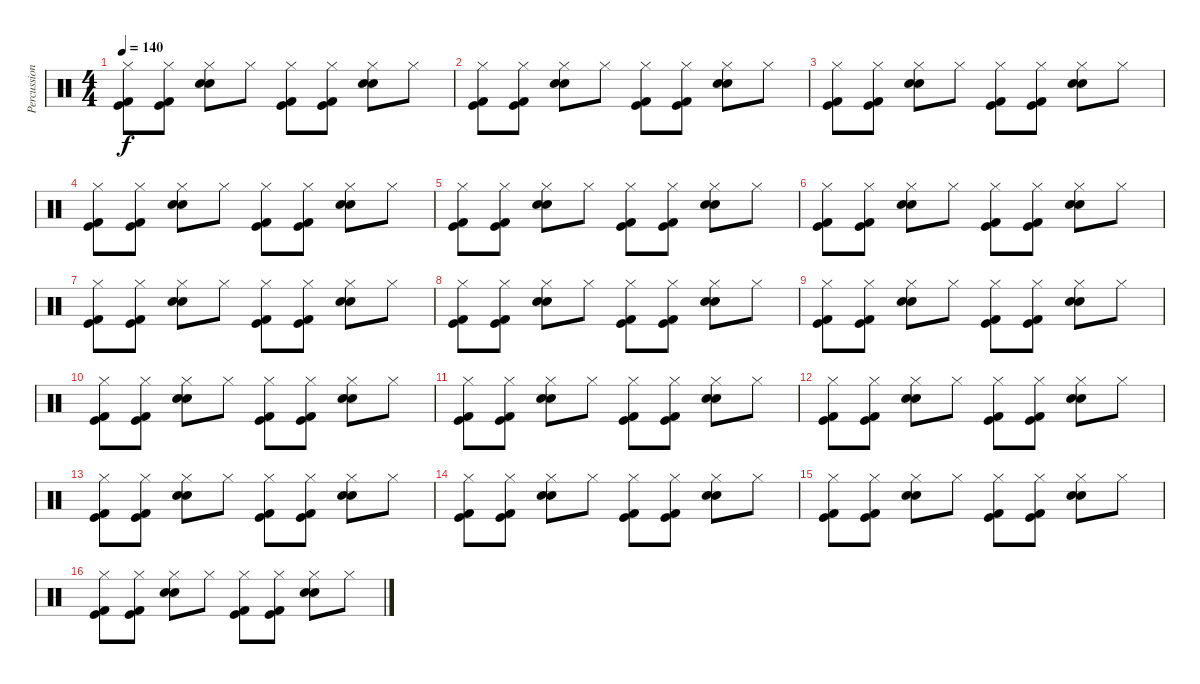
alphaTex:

\track ("Percussion" "Percussion") {instrument percussion}
\staff {score}
\articulation defaults
\ts (4 4)
\tempo 140
\clef neutral
\ks c
("Hi-Hat (closed)" "Kick (hit) 2" "Kick (hit)").8{dy f} ("Hi-Hat (closed)" "Kick (hit) 2" "Kick (hit)").8 ("Hi-Hat (closed)" "Electric Snare (hit)" "Snare (hit) 2").8 "Hi-Hat (closed)".8 ("Hi-Hat (closed)" "Kick (hit) 2" "Kick (hit)").8 ("Hi-Hat (closed)" "Kick (hit) 2" "Kick (hit)").8 ("Hi-Hat (closed)" "Electric Snare (hit)" "Snare (hit) 2").8 "Hi-Hat (closed)".8 |
("Hi-Hat (closed)" "Kick (hit) 2" "Kick (hit)").8 ("Hi-Hat (closed)" "Kick (hit) 2" "Kick (hit)").8 ("Hi-Hat (closed)" "Electric Snare (hit)" "Snare (hit) 2").8 "Hi-Hat (closed)".8 ("Hi-Hat (closed)" "Kick (hit) 2" "Kick (hit)").8 ("Hi-Hat (closed)" "Kick (hit) 2" "Kick (hit)").8 ("Hi-Hat (closed)" "Electric Snare (hit)" "Snare (hit) 2").8 "Hi-Hat (closed)".8 |
("Hi-Hat (closed)" "Kick (hit) 2" "Kick (hit)").8 ("Hi-Hat (closed)" "Kick (hit) 2" "Kick (hit)").8 ("Hi-Hat (closed)" "Electric Snare (hit)" "Snare (hit) 2").8 "Hi-Hat (closed)".8 ("Hi-Hat (closed)" "Kick (hit) 2" "Kick (hit)").8 ("Hi-Hat (closed)" "Kick (hit) 2" "Kick (hit)").8 ("Hi-Hat (closed)" "Electric Snare (hit)" "Snare (hit) 2").8 "Hi-Hat (closed)".8 |
("Hi-Hat (closed)" "Kick (hit) 2" "Kick (hit)").8 ("Hi-Hat (closed)" "Kick (hit) 2" "Kick (hit)").8 ("Hi-Hat (closed)" "Electric Snare (hit)" "Snare (hit) 2").8 "Hi-Hat (closed)".8 ("Hi-Hat (closed)" "Kick (hit) 2" "Kick (hit)").8 ("Hi-Hat (closed)" "Kick (hit) 2" "Kick (hit)").8 ("Hi-Hat (closed)" "Electric Snare (hit)" "Snare (hit) 2").8 "Hi-Hat (closed)".8 |
("Hi-Hat (closed)" "Kick (hit) 2" "Kick (hit)").8 ("Hi-Hat (closed)" "Kick (hit) 2" "Kick (hit)").8 ("Hi-Hat (closed)" "Electric Snare (hit)" "Snare (hit) 2").8 "Hi-Hat (closed)".8 ("Hi-Hat (closed)" "Kick (hit) 2" "Kick (hit)").8 ("Hi-Hat (closed)" "Kick (hit) 2" "Kick (hit)").8 ("Hi-Hat (closed)" "Electric Snare (hit)" "Snare (hit) 2").8 "Hi-Hat (closed)".8 |
("Hi-Hat (closed)" "Kick (hit) 2" "Kick (hit)").8 ("Hi-Hat (closed)" "Kick (hit) 2" "Kick (hit)").8 ("Hi-Hat (closed)" "Electric Snare (hit)" "Snare (hit) 2").8 "Hi-Hat (closed)".8 ("Hi-Hat (closed)" "Kick (hit) 2" "Kick (hit)").8 ("Hi-Hat (closed)" "Kick (hit) 2" "Kick (hit)").8 ("Hi-Hat (closed)" "Electric Snare (hit)" "Snare (hit) 2").8 "Hi-Hat (closed)".8 |
("Hi-Hat (closed)" "Kick (hit) 2" "Kick (hit)").8 ("Hi-Hat (closed)" "Kick (hit) 2" "Kick (hit)").8 ("Hi-Hat (closed)" "Electric Snare (hit)" "Snare (hit) 2").8 "Hi-Hat (closed)".8 ("Hi-Hat (closed)" "Kick (hit) 2" "Kick (hit)").8 ("Hi-Hat (closed)" "Kick (hit) 2" "Kick (hit)").8 ("Hi-Hat (closed)" "Electric Snare (hit)" "Snare (hit) 2").8 "Hi-Hat (closed)".8 |
("Hi-Hat (closed)" "Kick (hit) 2" "Kick (hit)").8 ("Hi-Hat (closed)" "Kick (hit) 2" "Kick (hit)").8 ("Hi-Hat (closed)" "Electric Snare (hit)" "Snare (hit) 2").8 "Hi-Hat (closed)".8 ("Hi-Hat (closed)" "Kick (hit) 2" "Kick (hit)").8 ("Hi-Hat (closed)" "Kick (hit) 2" "Kick (hit)").8 ("Hi-Hat (closed)" "Electric Snare (hit)" "Snare (hit) 2").8 "Hi-Hat (closed)".8 |
("Hi-Hat (closed)" "Kick (hit) 2" "Kick (hit)").8 ("Hi-Hat (closed)" "Kick (hit) 2" "Kick (hit)").8 ("Hi-Hat (closed)" "Electric Snare (hit)" "Snare (hit) 2").8 "Hi-Hat (closed)".8 ("Hi-Hat (closed)" "Kick (hit) 2" "Kick (hit)").8 ("Hi-Hat (closed)" "Kick (hit) 2" "Kick (hit)").8 ("Hi-Hat (closed)" "Electric Snare (hit)" "Snare (hit) 2").8 "Hi-Hat (closed)".8 |
("Hi-Hat (closed)" "Kick (hit) 2" "Kick (hit)").8 ("Hi-Hat (closed)" "Kick (hit) 2" "Kick (hit)").8 ("Hi-Hat (closed)" "Electric Snare (hit)" "Snare (hit) 2").8 "Hi-Hat (closed)".8 ("Hi-Hat (closed)" "Kick (hit) 2" "Kick (hit)").8 ("Hi-Hat (closed)" "Kick (hit) 2" "Kick (hit)").8 ("Hi-Hat (closed)" "Electric Snare (hit)" "Snare (hit) 2").8 "Hi-Hat (closed)".8 |
("Hi-Hat (closed)" "Kick (hit) 2" "Kick (hit)").8 ("Hi-Hat (closed)" "Kick (hit) 2" "Kick (hit)").8 ("Hi-Hat (closed)" "Electric Snare (hit)" "Snare (hit) 2").8 "Hi-Hat (closed)".8 ("Hi-Hat (closed)" "Kick (hit) 2" "Kick (hit)").8 ("Hi-Hat (closed)" "Kick (hit) 2" "Kick (hit)").8 ("Hi-Hat (closed)" "Electric Snare (hit)" "Snare (hit) 2").8 "Hi-Hat (closed)".8 |
("Hi-Hat (closed)" "Kick (hit) 2" "Kick (hit)").8 ("Hi-Hat (closed)" "Kick (hit) 2" "Kick (hit)").8 ("Hi-Hat (closed)" "Electric Snare (hit)" "Snare (hit) 2").8 "Hi-Hat (closed)".8 ("Hi-Hat (closed)" "Kick (hit) 2" "Kick (hit)").8 ("Hi-Hat (closed)" "Kick (hit) 2" "Kick (hit)").8 ("Hi-Hat (closed)" "Electric Snare (hit)" "Snare (hit) 2").8 "Hi-Hat (closed)".8 |
("Hi-Hat (closed)" "Kick (hit) 2" "Kick (hit)").8 ("Hi-Hat (closed)" "Kick (hit) 2" "Kick (hit)").8 ("Hi-Hat (closed)" "Electric Snare (hit)" "Snare (hit) 2").8 "Hi-Hat (closed)".8 ("Hi-Hat (closed)" "Kick (hit) 2" "Kick (hit)").8 ("Hi-Hat (closed)" "Kick (hit) 2" "Kick (hit)").8 ("Hi-Hat (closed)" "Electric Snare (hit)" "Snare (hit) 2").8 "Hi-Hat (closed)".8 |
("Hi-Hat (closed)" "Kick (hit) 2" "Kick (hit)").8 ("Hi-Hat (closed)" "Kick (hit) 2" "Kick (hit)").8 ("Hi-Hat (closed)" "Electric Snare (hit)" "Snare (hit) 2").8 "Hi-Hat (closed)".8 ("Hi-Hat (closed)" "Kick (hit) 2" "Kick (hit)").8 ("Hi-Hat (closed)" "Kick (hit) 2" "Kick (hit)").8 ("Hi-Hat (closed)" "Electric Snare (hit)" "Snare (hit) 2").8 "Hi-Hat (closed)".8 |
("Hi-Hat (closed)" "Kick (hit) 2" "Kick (hit)").8 ("Hi-Hat (closed)" "Kick (hit) 2" "Kick (hit)").8 ("Hi-Hat (closed)" "Electric Snare (hit)" "Snare (hit) 2").8 "Hi-Hat (closed)".8 ("Hi-Hat (closed)" "Kick (hit) 2" "Kick (hit)").8 ("Hi-Hat (closed)" "Kick (hit) 2" "Kick (hit)").8 ("Hi-Hat (closed)" "Electric Snare (hit)" "Snare (hit) 2").8 "Hi-Hat (closed)".8 |
("Hi-Hat (closed)" "Kick (hit) 2" "Kick (hit)").8 ("Hi-Hat (closed)" "Kick (hit) 2" "Kick (hit)").8 ("Hi-Hat (closed)" "Electric Snare (hit)" "Snare (hit) 2").8 "Hi-Hat (closed)".8 ("Hi-Hat (closed)" "Kick (hit) 2" "Kick (hit)").8 ("Hi-Hat (closed)" "Kick (hit) 2" "Kick (hit)").8 ("Hi-Hat (closed)" "Electric Snare (hit)" "Snare (hit) 2").8 "Hi-Hat (closed)".8
